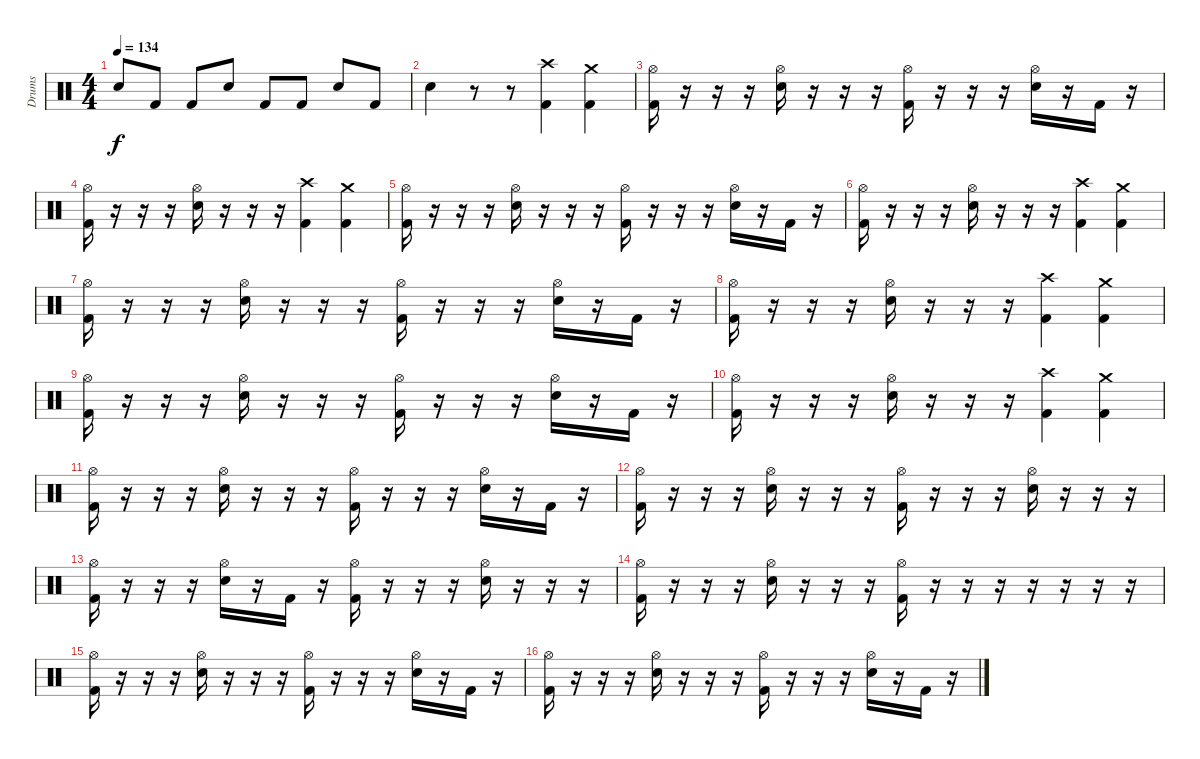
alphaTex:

\track ("Drums" "Drums") {instrument percussion}
\staff {score}
\articulation defaults
\ts (4 4)
\tempo 134
\clef neutral
\ks c "Snare (hit) 2".8{dy f} "Kick (hit) 2".8 "Kick (hit) 2".8 "Snare (hit) 2".8 "Kick (hit) 2".8 "Kick (hit) 2".8 "Snare (hit) 2".8 "Kick (hit) 2".8
|
"Snare (hit) 2".4 r.8 r.8 ("Crash high (hit)" "Kick (hit) 2").4 ("Crash medium (hit)" "Kick (hit) 2").4 |
("Kick (hit) 2" "Hi-Hat (open)").16 r.16 r.16 r.16 ("Snare (hit) 2" "Hi-Hat (open)").16 r.16 r.16 r.16 ("Kick (hit) 2" "Hi-Hat (open)").16 r.16 r.16 r.16 ("Snare (hit) 2" "Hi-Hat (open)").16 r.16 "Kick (hit) 2".16 r.16 |
("Kick (hit) 2" "Hi-Hat (open)").16 r.16 r.16 r.16 ("Snare (hit) 2" "Hi-Hat (open)").16 r.16 r.16 r.16 ("Crash high (hit)" "Kick (hit) 2").4 ("Crash medium (hit)" "Kick (hit) 2").4 |
("Kick (hit) 2" "Hi-Hat (open)").16 r.16 r.16 r.16 ("Snare (hit) 2" "Hi-Hat (open)").16 r.16 r.16 r.16 ("Kick (hit) 2" "Hi-Hat (open)").16 r.16 r.16 r.16 ("Snare (hit) 2" "Hi-Hat (open)").16 r.16 "Kick (hit) 2".16 r.16 |
("Kick (hit) 2" "Hi-Hat (open)").16 r.16 r.16 r.16 ("Snare (hit) 2" "Hi-Hat (open)").16 r.16 r.16 r.16 ("Crash high (hit)" "Kick (hit) 2").4 ("Crash medium (hit)" "Kick (hit) 2").4 |
("Kick (hit) 2" "Hi-Hat (open)").16 r.16 r.16 r.16 ("Snare (hit) 2" "Hi-Hat (open)").16 r.16 r.16 r.16 ("Kick (hit) 2" "Hi-Hat (open)").16 r.16 r.16 r.16 ("Snare (hit) 2" "Hi-Hat (open)").16 r.16 "Kick (hit) 2".16 r.16 |
("Kick (hit) 2" "Hi-Hat (open)").16 r.16 r.16 r.16 ("Snare (hit) 2" "Hi-Hat (open)").16 r.16 r.16 r.16 ("Crash high (hit)" "Kick (hit) 2").4 ("Crash medium (hit)" "Kick (hit) 2").4 |
("Kick (hit) 2" "Hi-Hat (open)").16 r.16 r.16 r.16 ("Snare (hit) 2" "Hi-Hat (open)").16 r.16 r.16 r.16 ("Kick (hit) 2" "Hi-Hat (open)").16 r.16 r.16 r.16 ("Snare (hit) 2" "Hi-Hat (open)").16 r.16 "Kick (hit) 2".16 r.16 |
("Kick (hit) 2" "Hi-Hat (open)").16 r.16 r.16 r.16 ("Snare (hit) 2" "Hi-Hat (open)").16 r.16 r.16 r.16 ("Crash high (hit)" "Kick (hit) 2").4 ("Crash medium (hit)" "Kick (hit) 2").4 |
("Kick (hit) 2" "Hi-Hat (open)").16 r.16 r.16 r.16 ("Snare (hit) 2" "Hi-Hat (open)").16 r.16 r.16 r.16 ("Kick (hit) 2" "Hi-Hat (open)").16 r.16 r.16 r.16 ("Snare (hit) 2" "Hi-Hat (open)").16 r.16 "Kick (hit) 2".16 r.16 |
("Kick (hit) 2" "Hi-Hat (open)").16 r.16 r.16 r.16 ("Snare (hit) 2" "Hi-Hat (open)").16 r.16 r.16 r.16 ("Kick (hit) 2" "Hi-Hat (open)").16 r.16 r.16 r.16 ("Snare (hit) 2" "Hi-Hat (open)").16 r.16 r.16 r.16 |
("Kick (hit) 2" "Hi-Hat (open)").16 r.16 r.16 r.16 ("Snare (hit) 2" "Hi-Hat (open)").16 r.16 "Kick (hit) 2".16 r.16 ("Kick (hit) 2" "Hi-Hat (open)").16 r.16 r.16 r.16 ("Snare (hit) 2" "Hi-Hat (open)").16 r.16 r.16 r.16 |
("Kick (hit) 2" "Hi-Hat (open)").16 r.16 r.16 r.16 ("Snare (hit) 2" "Hi-Hat (open)").16 r.16 r.16 r.16 ("Kick (hit) 2" "Hi-Hat (open)").16 r.16 r.16 r.16 r.16 r.16 r.16 r.16 |
("Kick (hit) 2" "Hi-Hat (open)").16 r.16 r.16 r.16 ("Snare (hit) 2" "Hi-Hat (open)").16 r.16 r.16 r.16 ("Kick (hit) 2" "Hi-Hat (open)").16 r.16 r.16 r.16 ("Snare (hit) 2" "Hi-Hat (open)").16 r.16 "Kick (hit) 2".16 r.16 |
("Kick (hit) 2" "Hi-Hat (open)").16 r.16 r.16 r.16 ("Snare (hit) 2" "Hi-Hat (open)").16 r.16 r.16 r.16 ("Kick (hit) 2" "Hi-Hat (open)").16 r.16 r.16 r.16 ("Snare (hit) 2" "Hi-Hat (open)").16 r.16 "Kick (hit) 2".16 r.16
